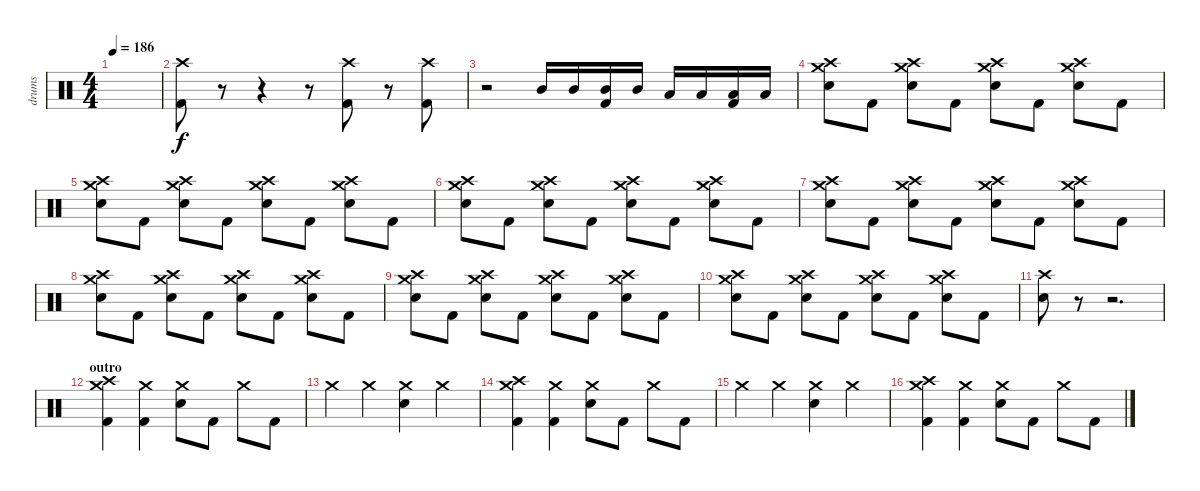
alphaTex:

\track ("drums" "drums") {instrument percussion}
\staff {score}
\articulation defaults
\ts (4 4)
\tempo 186
\clef neutral
\ks c
|
("Crash high (hit)" "Kick (hit) 2").8 r.8 r.4 r.8 ("Crash high (hit)" "Kick (hit) 2").8 r.8 ("Crash high (hit)" "Kick (hit) 2").8 |
r.2 "Mid Tom (hit)".16 "Mid Tom (hit)".16 ("Mid Tom (hit)" "Kick (hit) 2").16 "Mid Tom (hit)".16 "Low Tom (hit)".16 "Low Tom (hit)".16 ("Low Tom (hit)" "Kick (hit) 2").16 "Low Tom (hit)".16 |
("Crash high (hit)" "Crash medium (hit)" "Electric Snare (hit)").8 "Kick (hit) 2".8 ("Crash high (hit)" "Crash medium (hit)" "Electric Snare (hit)").8 "Kick (hit) 2".8 ("Crash high (hit)" "Crash medium (hit)" "Electric Snare (hit)").8 "Kick (hit) 2".8 ("Crash high (hit)" "Crash medium (hit)" "Electric Snare (hit)").8 "Kick (hit) 2".8 |
("Crash high (hit)" "Crash medium (hit)" "Electric Snare (hit)").8 "Kick (hit) 2".8 ("Crash high (hit)" "Crash medium (hit)" "Electric Snare (hit)").8 "Kick (hit) 2".8 ("Crash high (hit)" "Crash medium (hit)" "Electric Snare (hit)").8 "Kick (hit) 2".8 ("Crash high (hit)" "Crash medium (hit)" "Electric Snare (hit)").8 "Kick (hit) 2".8 |
("Crash high (hit)" "Crash medium (hit)" "Electric Snare (hit)").8 "Kick (hit) 2".8 ("Crash high (hit)" "Crash medium (hit)" "Electric Snare (hit)").8 "Kick (hit) 2".8 ("Crash high (hit)" "Crash medium (hit)" "Electric Snare (hit)").8 "Kick (hit) 2".8 ("Crash high (hit)" "Crash medium (hit)" "Electric Snare (hit)").8 "Kick (hit) 2".8 |
("Crash high (hit)" "Crash medium (hit)" "Electric Snare (hit)").8 "Kick (hit) 2".8 ("Crash high (hit)" "Crash medium (hit)" "Electric Snare (hit)").8 "Kick (hit) 2".8 ("Crash high (hit)" "Crash medium (hit)" "Electric Snare (hit)").8 "Kick (hit) 2".8 ("Crash high (hit)" "Crash medium (hit)" "Electric Snare (hit)").8 "Kick (hit) 2".8 |
("Crash high (hit)" "Crash medium (hit)" "Electric Snare (hit)").8 "Kick (hit) 2".8 ("Crash high (hit)" "Crash medium (hit)" "Electric Snare (hit)").8 "Kick (hit) 2".8 ("Crash high (hit)" "Crash medium (hit)" "Electric Snare (hit)").8 "Kick (hit) 2".8 ("Crash high (hit)" "Crash medium (hit)" "Electric Snare (hit)").8 "Kick (hit) 2".8 |
("Crash high (hit)" "Crash medium (hit)" "Electric Snare (hit)").8 "Kick (hit) 2".8 ("Crash high (hit)" "Crash medium (hit)" "Electric Snare (hit)").8 "Kick (hit) 2".8 ("Crash high (hit)" "Crash medium (hit)" "Electric Snare (hit)").8 "Kick (hit) 2".8 ("Crash high (hit)" "Crash medium (hit)" "Electric Snare (hit)").8 "Kick (hit) 2".8 |
("Crash high (hit)" "Crash medium (hit)" "Electric Snare (hit)").8 "Kick (hit) 2".8 ("Crash high (hit)" "Crash medium (hit)" "Electric Snare (hit)").8 "Kick (hit) 2".8 ("Crash high (hit)" "Crash medium (hit)" "Electric Snare (hit)").8 "Kick (hit) 2".8 ("Crash high (hit)" "Crash medium (hit)" "Electric Snare (hit)").8 "Kick (hit) 2".8 |
("Crash high (hit)" "Electric Snare (hit)").8 r.8 r.2{d} |
\section ("" "outro")
("Crash high (hit)" "Crash medium (hit)" "Kick (hit) 2").4 ("Crash medium (hit)" "Kick (hit) 2").4 ("Crash medium (hit)" "Electric Snare (hit)").8 "Kick (hit) 2".8 "Crash medium (hit)".8 "Kick (hit) 2".8 |
"Crash medium (hit)".4 "Crash medium (hit)".4 ("Crash medium (hit)" "Electric Snare (hit)").4 "Crash medium (hit)".4 |
("Crash high (hit)" "Crash medium (hit)" "Kick (hit) 2").4 ("Crash medium (hit)" "Kick (hit) 2").4 ("Crash medium (hit)" "Electric Snare (hit)").8 "Kick (hit) 2".8 "Crash medium (hit)".8 "Kick (hit) 2".8 |
"Crash medium (hit)".4 "Crash medium (hit)".4 ("Crash medium (hit)" "Electric Snare (hit)").4 "Crash medium (hit)".4 |
("Crash high (hit)" "Crash medium (hit)" "Kick (hit) 2").4 ("Crash medium (hit)" "Kick (hit) 2").4 ("Crash medium (hit)" "Electric Snare (hit)").8 "Kick (hit) 2".8 "Crash medium (hit)".8 "Kick (hit) 2".8
